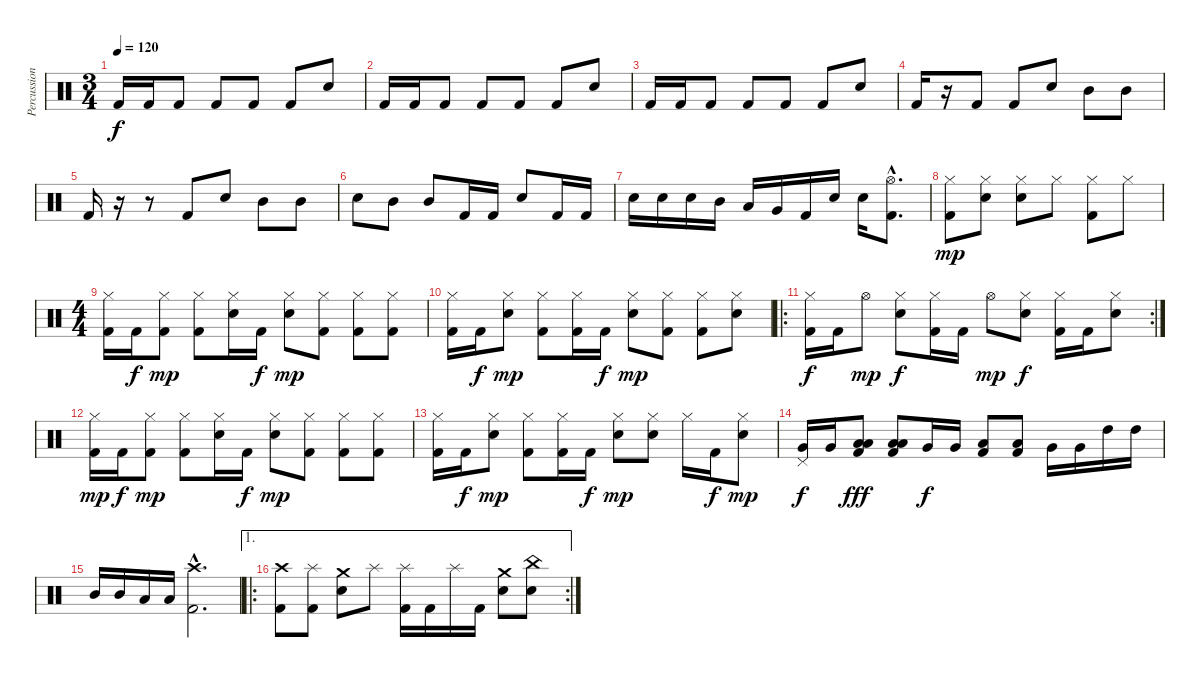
\track ("Percussion" "Percussion") {instrument percussion}
\staff {score}
\articulation defaults
\ts (3 4)
\tempo 120
\clef neutral
\ks c "Kick (hit) 2".16{dy f} "Kick (hit) 2".16 "Kick (hit) 2".8 "Kick (hit) 2".8 "Kick (hit) 2".8 "Kick (hit) 2".8 "Snare (hit) 2".8
|
"Kick (hit) 2".16 "Kick (hit) 2".16 "Kick (hit) 2".8 "Kick (hit) 2".8 "Kick (hit) 2".8 "Kick (hit) 2".8 "Snare (hit) 2".8 |
"Kick (hit) 2".16 "Kick (hit) 2".16 "Kick (hit) 2".8 "Kick (hit) 2".8 "Kick (hit) 2".8 "Kick (hit) 2".8 "Snare (hit) 2".8 |
"Kick (hit) 2".16 r.16 "Kick (hit) 2".8 "Kick (hit) 2".8 "Snare (hit) 2".8 "Mid Tom (hit)".8 "Mid Tom (hit)".8 |
"Kick (hit) 2".16 r.16 r.8 "Kick (hit) 2".8 "Snare (hit) 2".8 "Mid Tom (hit)".8 "Mid Tom (hit)".8 |
"Snare (hit) 2".8 "Mid Tom (hit)".8 "Mid Tom (hit)".8 "Kick (hit) 2".16 "Kick (hit) 2".16 "Snare (hit) 2".8 "Kick (hit) 2".16 "Kick (hit) 2".16 |
"Snare (hit) 2".16 "Snare (hit) 2".16 "Snare (hit) 2".16 "Mid Tom (hit)".16 "Low Tom (hit)".16 "Very Low Tom (hit)".16 "Kick (hit) 2".16 "Snare (hit) 2".16 "Snare (hit) 2".16 ("Hi-Hat (open)"{hac} "Kick (hit) 2"{hac}).8{d} |
("Hi-Hat (closed)" "Kick (hit) 2").8{dy mp} ("Hi-Hat (closed)" "Snare (hit) 2").8 ("Hi-Hat (closed)" "Snare (hit) 2").8 "Hi-Hat (closed)".8 ("Hi-Hat (closed)" "Kick (hit) 2").8 "Hi-Hat (closed)".8 |
\ts (4 4)
("Hi-Hat (closed)" "Kick (hit) 2").16 "Kick (hit) 2".16{dy f} ("Hi-Hat (closed)" "Kick (hit) 2").8{dy mp} ("Hi-Hat (closed)" "Kick (hit) 2").8 ("Hi-Hat (closed)" "Snare (hit) 2").16 "Kick (hit) 2".16{dy f} ("Hi-Hat (closed)" "Snare (hit) 2").8{dy mp} ("Hi-Hat (closed)" "Kick (hit) 2").8 ("Hi-Hat (closed)" "Kick (hit) 2").8 ("Hi-Hat (closed)" "Kick (hit) 2").8 |
("Hi-Hat (closed)" "Kick (hit) 2").16 "Kick (hit) 2".16{dy f} ("Hi-Hat (closed)" "Snare (hit) 2").8{dy mp} ("Hi-Hat (closed)" "Kick (hit) 2").8 ("Hi-Hat (closed)" "Kick (hit) 2").16 "Kick (hit) 2".16{dy f} ("Hi-Hat (closed)" "Snare (hit) 2").8{dy mp} ("Hi-Hat (closed)" "Kick (hit) 2").8 ("Hi-Hat (closed)" "Kick (hit) 2").8 ("Hi-Hat (closed)" "Snare (hit) 2").8 |
\ro
\rc 2
("Hi-Hat (closed)" "Kick (hit) 2").16{dy f} "Kick (hit) 2".16 "Hi-Hat (open)".8{dy mp} ("Hi-Hat (closed)" "Snare (hit) 2").8{dy f} ("Hi-Hat (closed)" "Kick (hit) 2").16 "Kick (hit) 2".16 "Hi-Hat (open)".8{dy mp} ("Snare (hit) 2" "Hi-Hat (closed)").8{dy f} ("Kick (hit) 2" "Hi-Hat (closed)").16 "Kick (hit) 2".16 ("Snare (hit) 2" "Hi-Hat (closed)").8 |
("Hi-Hat (closed)" "Kick (hit) 2").16{dy mp} "Kick (hit) 2".16{dy f} ("Hi-Hat (closed)" "Kick (hit) 2").8{dy mp} ("Hi-Hat (closed)" "Kick (hit) 2").8 ("Hi-Hat (closed)" "Snare (hit) 2").16 "Kick (hit) 2".16{dy f} ("Hi-Hat (closed)" "Snare (hit) 2").8{dy mp} ("Hi-Hat (closed)" "Kick (hit) 2").8 ("Hi-Hat (closed)" "Kick (hit) 2").8 ("Hi-Hat (closed)" "Kick (hit) 2").8 |
("Hi-Hat (closed)" "Kick (hit) 2").16 "Kick (hit) 2".16{dy f} ("Hi-Hat (closed)" "Snare (hit) 2").8{dy mp} ("Hi-Hat (closed)" "Kick (hit) 2").8 ("Hi-Hat (closed)" "Kick (hit) 2").16 "Kick (hit) 2".16{dy f} ("Hi-Hat (closed)" "Snare (hit) 2").8{dy mp} ("Hi-Hat (closed)" "Snare (hit) 2").8 "Hi-Hat (closed)".16 "Kick (hit) 2".16{dy f} ("Hi-Hat (closed)" "Snare (hit) 2").8{dy mp} |
("Pedal Hi-Hat (hit)" "Very Low Tom (hit)").16{dy f} "Very Low Tom (hit)".16 ("Kick (hit) 2" "Low Floor Tom (hit)" "Low Floor Tom (hit)").8{dy fff} ("Kick (hit) 2" "Low Floor Tom (hit)" "Low Floor Tom (hit)").8 "Very Low Tom (hit)".16{dy f} "Very Low Tom (hit)".16 ("Kick (hit) 2" "Low Floor Tom (hit)").8 ("Kick (hit) 2" "Low Floor Tom (hit)").8 "Very Low Tom (hit)".16 "Very Low Tom (hit)".16 "High Tom (hit)".16 "High Tom (hit)".16 |
"Mid Tom (hit)".16 "Mid Tom (hit)".16 "Low Floor Tom (hit)".16 "Low Floor Tom (hit)".16 ("Crash high (hit)"{hac} "Kick (hit) 2"{hac}).2{d} |
\ae 1
\ro
\rc 2
("Crash high (hit)" "Kick (hit) 2").8 ("Splash (hit)" "Kick (hit) 2").8 ("Crash medium (hit)" "Snare (hit) 2").8 "Splash (hit)".8 ("Splash (hit)" "Kick (hit) 2").16 "Kick (hit) 2".16 "Splash (hit)".16 "Kick (hit) 2".16 ("Crash medium (hit)" "Snare (hit) 2").8 ("China (hit)" "Snare (hit) 2").8
